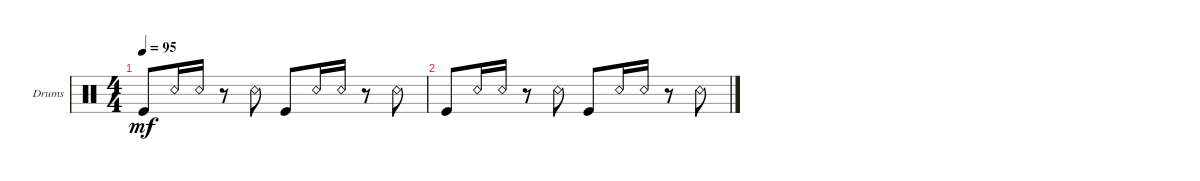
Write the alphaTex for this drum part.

\defaultSystemsLayout 4
\bracketExtendMode groupsimilarinstruments
\firstSystemTrackNameOrientation horizontal
\otherSystemsTrackNameOrientation horizontal
\track ("Drumkit" "Drums") {instrument percussion}
\staff {score}
\articulation defaults
\ts (4 4)
\tempo 95
\clef neutral
\scale
0.5
\ks c "Kick (hit)".8{dy mf} "Snare (rim shot)".16 "Snare (rim shot)".16
r.8 "Snare (rim shot)".8 "Kick (hit)".8 "Snare (rim shot)".16 "Snare (rim shot)".16 r.8 "Snare (rim shot)".8 |
\scale
0.5 "Kick (hit)".8 "Snare (rim shot)".16 "Snare (rim shot)".16 r.8 "Snare (rim shot)".8 "Kick (hit)".8 "Snare (rim shot)".16 "Snare (rim shot)".16 r.8 "Snare (rim shot)".8 |
\scale
0.5
